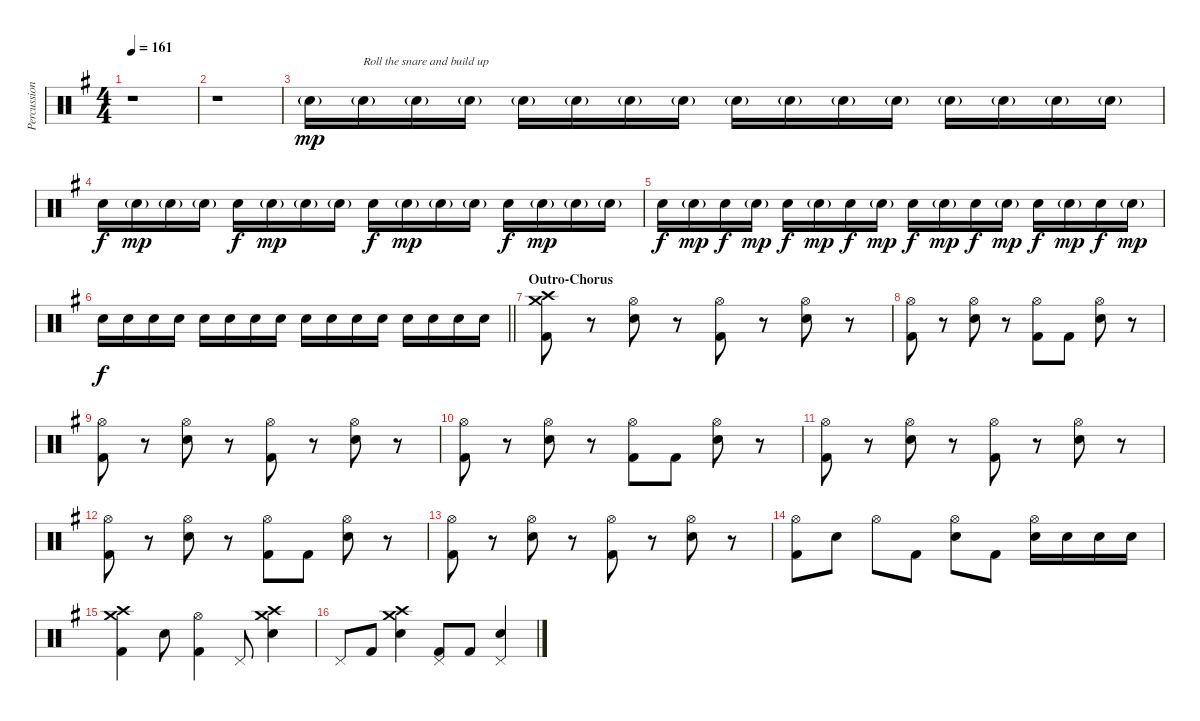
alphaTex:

\track ("Percussion" "Percussion") {instrument percussion}
\staff {score}
\articulation defaults
\ts (4 4)
\tempo 161
\clef neutral
\ks g
r.1{dy f} |
r.1 |
"Electric Snare (hit)"{g}.16{dy mp} "Electric Snare (hit)"{g}.16{txt "Roll the snare and build up"} "Electric Snare (hit)"{g}.16 "Electric Snare (hit)"{g}.16 "Electric Snare (hit)"{g}.16 "Electric Snare (hit)"{g}.16 "Electric Snare (hit)"{g}.16 "Electric Snare (hit)"{g}.16 "Electric Snare (hit)"{g}.16 "Electric Snare (hit)"{g}.16 "Electric Snare (hit)"{g}.16 "Electric Snare (hit)"{g}.16 "Electric Snare (hit)"{g}.16 "Electric Snare (hit)"{g}.16 "Electric Snare (hit)"{g}.16 "Electric Snare (hit)"{g}.16 |
"Electric Snare (hit)".16{dy f} "Electric Snare (hit)"{g}.16{dy mp} "Electric Snare (hit)"{g}.16 "Electric Snare (hit)"{g}.16 "Electric Snare (hit)".16{dy f} "Electric Snare (hit)"{g}.16{dy mp} "Electric Snare (hit)"{g}.16 "Electric Snare (hit)"{g}.16 "Electric Snare (hit)".16{dy f} "Electric Snare (hit)"{g}.16{dy mp} "Electric Snare (hit)"{g}.16 "Electric Snare (hit)"{g}.16 "Electric Snare (hit)".16{dy f} "Electric Snare (hit)"{g}.16{dy mp} "Electric Snare (hit)"{g}.16 "Electric Snare (hit)"{g}.16 |
"Electric Snare (hit)".16{dy f} "Electric Snare (hit)"{g}.16{dy mp} "Electric Snare (hit)".16{dy f} "Electric Snare (hit)"{g}.16{dy mp} "Electric Snare (hit)".16{dy f} "Electric Snare (hit)"{g}.16{dy mp} "Electric Snare (hit)".16{dy f} "Electric Snare (hit)"{g}.16{dy mp} "Electric Snare (hit)".16{dy f} "Electric Snare (hit)"{g}.16{dy mp} "Electric Snare (hit)".16{dy f} "Electric Snare (hit)"{g}.16{dy mp} "Electric Snare (hit)".16{dy f} "Electric Snare (hit)"{g}.16{dy mp} "Electric Snare (hit)".16{dy f} "Electric Snare (hit)"{g}.16{dy mp} |
\barLineRight lightlight "Electric Snare (hit)".16{dy f} "Electric Snare (hit)".16 "Electric Snare (hit)".16 "Electric Snare (hit)".16 "Electric Snare (hit)".16 "Electric Snare (hit)".16 "Electric Snare (hit)".16 "Electric Snare (hit)".16 "Electric Snare (hit)".16 "Electric Snare (hit)".16 "Electric Snare (hit)".16 "Electric Snare (hit)".16 "Electric Snare (hit)".16 "Electric Snare (hit)".16 "Electric Snare (hit)".16 "Electric Snare (hit)".16
|
\section ("" "Outro-Chorus")
("Crash high (hit)" "Crash medium (hit)" "Kick (hit) 2").8 r.8 ("Hi-Hat (open)" "Electric Snare (hit)").8 r.8 ("Hi-Hat (open)" "Kick (hit) 2").8 r.8 ("Hi-Hat (open)" "Electric Snare (hit)").8 r.8 |
("Hi-Hat (open)" "Kick (hit) 2").8 r.8 ("Hi-Hat (open)" "Electric Snare (hit)").8 r.8 ("Hi-Hat (open)" "Kick (hit) 2").8 "Kick (hit) 2".8 ("Hi-Hat (open)" "Electric Snare (hit)").8 r.8 |
("Hi-Hat (open)" "Kick (hit) 2").8 r.8 ("Hi-Hat (open)" "Electric Snare (hit)").8 r.8 ("Hi-Hat (open)" "Kick (hit) 2").8 r.8 ("Hi-Hat (open)" "Electric Snare (hit)").8 r.8 |
("Hi-Hat (open)" "Kick (hit) 2").8 r.8 ("Hi-Hat (open)" "Electric Snare (hit)").8 r.8 ("Hi-Hat (open)" "Kick (hit) 2").8 "Kick (hit) 2".8 ("Hi-Hat (open)" "Electric Snare (hit)").8 r.8 |
("Hi-Hat (open)" "Kick (hit) 2").8 r.8 ("Hi-Hat (open)" "Electric Snare (hit)").8 r.8 ("Hi-Hat (open)" "Kick (hit) 2").8 r.8 ("Hi-Hat (open)" "Electric Snare (hit)").8 r.8 |
("Hi-Hat (open)" "Kick (hit) 2").8 r.8 ("Hi-Hat (open)" "Electric Snare (hit)").8 r.8 ("Hi-Hat (open)" "Kick (hit) 2").8 "Kick (hit) 2".8 ("Hi-Hat (open)" "Electric Snare (hit)").8 r.8 |
("Hi-Hat (open)" "Kick (hit) 2").8 r.8 ("Hi-Hat (open)" "Electric Snare (hit)").8 r.8 ("Hi-Hat (open)" "Kick (hit) 2").8 r.8 ("Hi-Hat (open)" "Electric Snare (hit)").8 r.8 |
("Hi-Hat (open)" "Kick (hit) 2").8 "Electric Snare (hit)".8 "Hi-Hat (open)".8 "Kick (hit) 2".8 ("Hi-Hat (open)" "Electric Snare (hit)").8 "Kick (hit) 2".8 ("Hi-Hat (open)" "Electric Snare (hit)").16 "Electric Snare (hit)".16 "Electric Snare (hit)".16 "Electric Snare (hit)".16 |
("Crash high (hit)" "Crash medium (hit)" "Kick (hit) 2").4 "Electric Snare (hit)".8 ("Hi-Hat (open)" "Kick (hit) 2").4 "Pedal Hi-Hat (hit)".8 ("Crash high (hit)" "Crash medium (hit)" "Electric Snare (hit)").4 |
"Pedal Hi-Hat (hit)".8 "Kick (hit) 2".8 ("Crash medium (hit)" "Crash high (hit)" "Electric Snare (hit)").4 ("Pedal Hi-Hat (hit)" "Kick (hit) 2").8 "Kick (hit) 2".8 ("Pedal Hi-Hat (hit)" "Electric Snare (hit)").4
